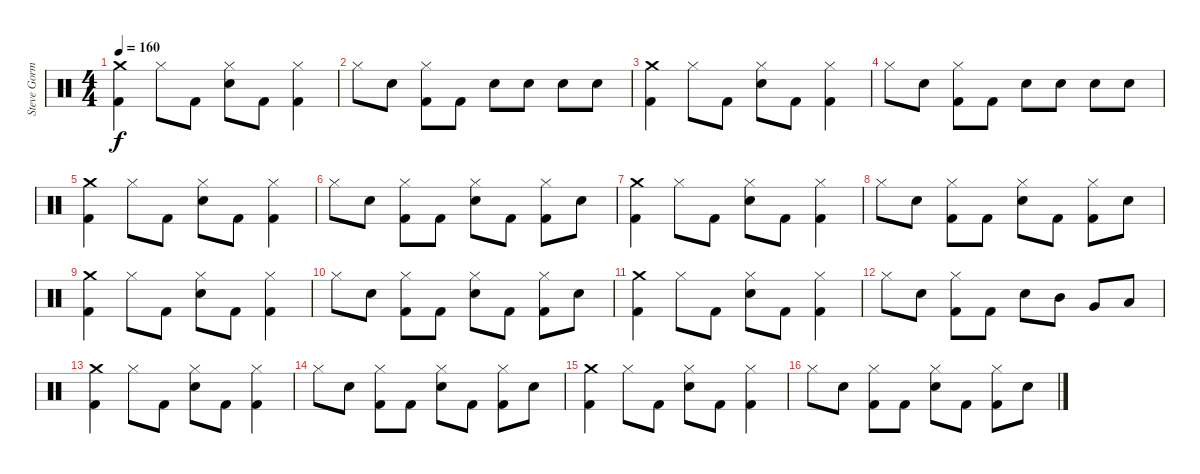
\track ("Steve Gorman " "Steve Gorm") {instrument percussion}
\staff {score}
\articulation defaults
\ts (4 4)
\tempo 160
\clef neutral
\ks c
("Crash medium (hit)" "Kick (hit) 2").4{dy f} "Hi-Hat (closed)".8 "Kick (hit) 2".8 ("Snare (hit) 2" "Hi-Hat (closed)").8 "Kick (hit) 2".8 ("Hi-Hat (closed)" "Kick (hit) 2").4 |
"Hi-Hat (closed)".8 "Snare (hit) 2".8 ("Hi-Hat (closed)" "Kick (hit) 2").8 "Kick (hit) 2".8 "Snare (hit) 2".8 "Snare (hit) 2".8 "Snare (hit) 2".8 "Snare (hit) 2".8 |
("Crash medium (hit)" "Kick (hit) 2").4 "Hi-Hat (closed)".8 "Kick (hit) 2".8 ("Snare (hit) 2" "Hi-Hat (closed)").8 "Kick (hit) 2".8 ("Hi-Hat (closed)" "Kick (hit) 2").4 |
"Hi-Hat (closed)".8 "Snare (hit) 2".8 ("Hi-Hat (closed)" "Kick (hit) 2").8 "Kick (hit) 2".8 "Snare (hit) 2".8 "Snare (hit) 2".8 "Snare (hit) 2".8 "Snare (hit) 2".8 |
("Crash medium (hit)" "Kick (hit) 2").4 "Hi-Hat (closed)".8 "Kick (hit) 2".8 ("Hi-Hat (closed)" "Snare (hit) 2").8 "Kick (hit) 2".8 ("Hi-Hat (closed)" "Kick (hit) 2").4 |
"Hi-Hat (closed)".8 "Snare (hit) 2".8 ("Hi-Hat (closed)" "Kick (hit) 2").8 "Kick (hit) 2".8 ("Hi-Hat (closed)" "Snare (hit) 2").8 "Kick (hit) 2".8 ("Hi-Hat (closed)" "Kick (hit) 2").8 "Snare (hit) 2".8 |
("Crash medium (hit)" "Kick (hit) 2").4 "Hi-Hat (closed)".8 "Kick (hit) 2".8 ("Hi-Hat (closed)" "Snare (hit) 2").8 "Kick (hit) 2".8 ("Hi-Hat (closed)" "Kick (hit) 2").4 |
"Hi-Hat (closed)".8 "Snare (hit) 2".8 ("Hi-Hat (closed)" "Kick (hit) 2").8 "Kick (hit) 2".8 ("Hi-Hat (closed)" "Snare (hit) 2").8 "Kick (hit) 2".8 ("Hi-Hat (closed)" "Kick (hit) 2").8 "Snare (hit) 2".8 |
("Crash medium (hit)" "Kick (hit) 2").4 "Hi-Hat (closed)".8 "Kick (hit) 2".8 ("Hi-Hat (closed)" "Snare (hit) 2").8 "Kick (hit) 2".8 ("Hi-Hat (closed)" "Kick (hit) 2").4 |
"Hi-Hat (closed)".8 "Snare (hit) 2".8 ("Hi-Hat (closed)" "Kick (hit) 2").8 "Kick (hit) 2".8 ("Hi-Hat (closed)" "Snare (hit) 2").8 "Kick (hit) 2".8 ("Hi-Hat (closed)" "Kick (hit) 2").8 "Snare (hit) 2".8 |
("Crash medium (hit)" "Kick (hit) 2").4 "Hi-Hat (closed)".8 "Kick (hit) 2".8 ("Hi-Hat (closed)" "Snare (hit) 2").8 "Kick (hit) 2".8 ("Hi-Hat (closed)" "Kick (hit) 2").4 |
"Hi-Hat (closed)".8 "Snare (hit) 2".8 ("Hi-Hat (closed)" "Kick (hit) 2").8 "Kick (hit) 2".8 "Snare (hit) 2".8 "Mid Tom (hit)".8 "Very Low Tom (hit)".8 "Low Tom (hit)".8 |
("Crash medium (hit)" "Kick (hit) 2").4 "Hi-Hat (closed)".8 "Kick (hit) 2".8 ("Hi-Hat (closed)" "Snare (hit) 2").8 "Kick (hit) 2".8 ("Hi-Hat (closed)" "Kick (hit) 2").4 |
"Hi-Hat (closed)".8 "Snare (hit) 2".8 ("Hi-Hat (closed)" "Kick (hit) 2").8 "Kick (hit) 2".8 ("Hi-Hat (closed)" "Snare (hit) 2").8 "Kick (hit) 2".8 ("Hi-Hat (closed)" "Kick (hit) 2").8 "Snare (hit) 2".8 |
("Crash medium (hit)" "Kick (hit) 2").4 "Hi-Hat (closed)".8 "Kick (hit) 2".8 ("Hi-Hat (closed)" "Snare (hit) 2").8 "Kick (hit) 2".8 ("Hi-Hat (closed)" "Kick (hit) 2").4 |
"Hi-Hat (closed)".8 "Snare (hit) 2".8 ("Hi-Hat (closed)" "Kick (hit) 2").8 "Kick (hit) 2".8 ("Hi-Hat (closed)" "Snare (hit) 2").8 "Kick (hit) 2".8 ("Hi-Hat (closed)" "Kick (hit) 2").8 "Snare (hit) 2".8
